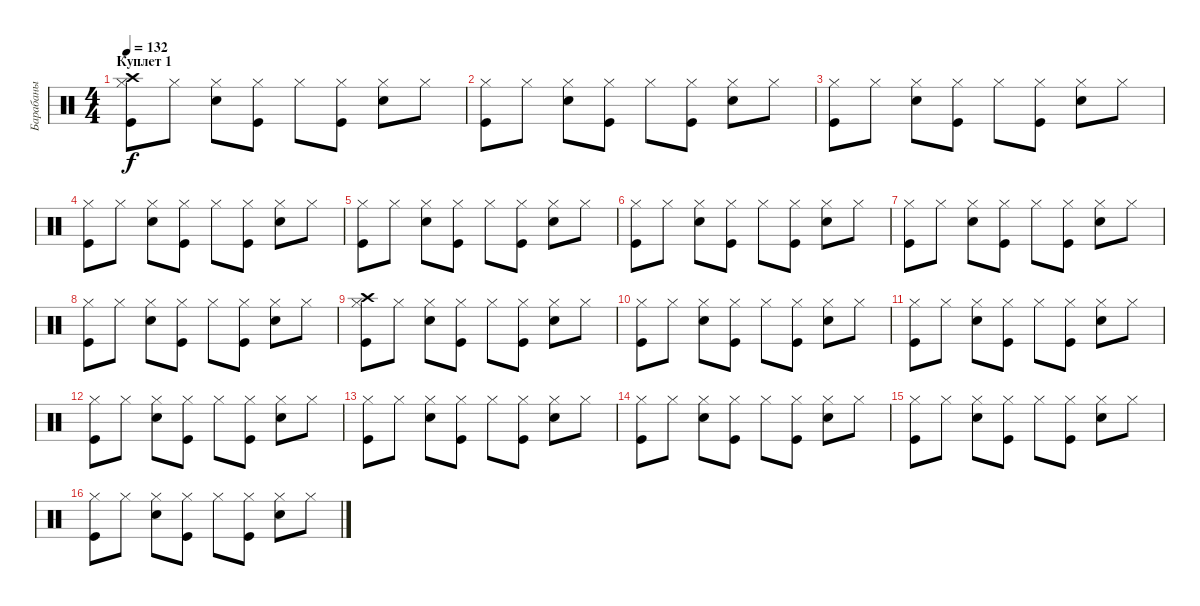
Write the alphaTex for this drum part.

\track ("Барабаны" "Барабаны") {instrument percussion}
\staff {score}
\articulation defaults
\ts (4 4)
\section ("" "Куплет 1")
\tempo 132
\clef neutral
\ks c
("Kick (hit)" "Hi-Hat (closed)" "Crash high (hit)").8{dy f} "Hi-Hat (closed)".8 ("Snare (hit) 2" "Hi-Hat (closed)").8 ("Kick (hit)" "Hi-Hat (closed)").8 "Hi-Hat (closed)".8 ("Kick (hit)" "Hi-Hat (closed)").8 ("Snare (hit) 2" "Hi-Hat (closed)").8 "Hi-Hat (closed)".8 |
("Kick (hit)" "Hi-Hat (closed)").8 "Hi-Hat (closed)".8 ("Snare (hit) 2" "Hi-Hat (closed)").8 ("Kick (hit)" "Hi-Hat (closed)").8 "Hi-Hat (closed)".8 ("Kick (hit)" "Hi-Hat (closed)").8 ("Snare (hit) 2" "Hi-Hat (closed)").8 "Hi-Hat (closed)".8 |
("Kick (hit)" "Hi-Hat (closed)").8 "Hi-Hat (closed)".8 ("Snare (hit) 2" "Hi-Hat (closed)").8 ("Kick (hit)" "Hi-Hat (closed)").8 "Hi-Hat (closed)".8 ("Kick (hit)" "Hi-Hat (closed)").8 ("Snare (hit) 2" "Hi-Hat (closed)").8 "Hi-Hat (closed)".8 |
("Kick (hit)" "Hi-Hat (closed)").8 "Hi-Hat (closed)".8 ("Snare (hit) 2" "Hi-Hat (closed)").8 ("Kick (hit)" "Hi-Hat (closed)").8 "Hi-Hat (closed)".8 ("Kick (hit)" "Hi-Hat (closed)").8 ("Snare (hit) 2" "Hi-Hat (closed)").8 "Hi-Hat (closed)".8 |
("Kick (hit)" "Hi-Hat (closed)").8 "Hi-Hat (closed)".8 ("Snare (hit) 2" "Hi-Hat (closed)").8 ("Kick (hit)" "Hi-Hat (closed)").8 "Hi-Hat (closed)".8 ("Kick (hit)" "Hi-Hat (closed)").8 ("Snare (hit) 2" "Hi-Hat (closed)").8 "Hi-Hat (closed)".8 |
("Kick (hit)" "Hi-Hat (closed)").8 "Hi-Hat (closed)".8 ("Snare (hit) 2" "Hi-Hat (closed)").8 ("Kick (hit)" "Hi-Hat (closed)").8 "Hi-Hat (closed)".8 ("Kick (hit)" "Hi-Hat (closed)").8 ("Snare (hit) 2" "Hi-Hat (closed)").8 "Hi-Hat (closed)".8 |
("Kick (hit)" "Hi-Hat (closed)").8 "Hi-Hat (closed)".8 ("Snare (hit) 2" "Hi-Hat (closed)").8 ("Kick (hit)" "Hi-Hat (closed)").8 "Hi-Hat (closed)".8 ("Kick (hit)" "Hi-Hat (closed)").8 ("Snare (hit) 2" "Hi-Hat (closed)").8 "Hi-Hat (closed)".8 |
("Kick (hit)" "Hi-Hat (closed)").8 "Hi-Hat (closed)".8 ("Snare (hit) 2" "Hi-Hat (closed)").8 ("Kick (hit)" "Hi-Hat (closed)").8 "Hi-Hat (closed)".8 ("Kick (hit)" "Hi-Hat (closed)").8 ("Snare (hit) 2" "Hi-Hat (closed)").8 "Hi-Hat (closed)".8 |
("Kick (hit)" "Hi-Hat (closed)" "Crash high (hit)").8 "Hi-Hat (closed)".8 ("Snare (hit) 2" "Hi-Hat (closed)").8 ("Kick (hit)" "Hi-Hat (closed)").8 "Hi-Hat (closed)".8 ("Kick (hit)" "Hi-Hat (closed)").8 ("Snare (hit) 2" "Hi-Hat (closed)").8 "Hi-Hat (closed)".8 |
("Kick (hit)" "Hi-Hat (closed)").8 "Hi-Hat (closed)".8 ("Snare (hit) 2" "Hi-Hat (closed)").8 ("Kick (hit)" "Hi-Hat (closed)").8 "Hi-Hat (closed)".8 ("Kick (hit)" "Hi-Hat (closed)").8 ("Snare (hit) 2" "Hi-Hat (closed)").8 "Hi-Hat (closed)".8 |
("Kick (hit)" "Hi-Hat (closed)").8 "Hi-Hat (closed)".8 ("Snare (hit) 2" "Hi-Hat (closed)").8 ("Kick (hit)" "Hi-Hat (closed)").8 "Hi-Hat (closed)".8 ("Kick (hit)" "Hi-Hat (closed)").8 ("Snare (hit) 2" "Hi-Hat (closed)").8 "Hi-Hat (closed)".8 |
("Kick (hit)" "Hi-Hat (closed)").8 "Hi-Hat (closed)".8 ("Snare (hit) 2" "Hi-Hat (closed)").8 ("Kick (hit)" "Hi-Hat (closed)").8 "Hi-Hat (closed)".8 ("Kick (hit)" "Hi-Hat (closed)").8 ("Snare (hit) 2" "Hi-Hat (closed)").8 "Hi-Hat (closed)".8 |
("Kick (hit)" "Hi-Hat (closed)").8 "Hi-Hat (closed)".8 ("Snare (hit) 2" "Hi-Hat (closed)").8 ("Kick (hit)" "Hi-Hat (closed)").8 "Hi-Hat (closed)".8 ("Kick (hit)" "Hi-Hat (closed)").8 ("Snare (hit) 2" "Hi-Hat (closed)").8 "Hi-Hat (closed)".8 |
("Kick (hit)" "Hi-Hat (closed)").8 "Hi-Hat (closed)".8 ("Snare (hit) 2" "Hi-Hat (closed)").8 ("Kick (hit)" "Hi-Hat (closed)").8 "Hi-Hat (closed)".8 ("Kick (hit)" "Hi-Hat (closed)").8 ("Snare (hit) 2" "Hi-Hat (closed)").8 "Hi-Hat (closed)".8 |
("Kick (hit)" "Hi-Hat (closed)").8 "Hi-Hat (closed)".8 ("Snare (hit) 2" "Hi-Hat (closed)").8 ("Kick (hit)" "Hi-Hat (closed)").8 "Hi-Hat (closed)".8 ("Kick (hit)" "Hi-Hat (closed)").8 ("Snare (hit) 2" "Hi-Hat (closed)").8 "Hi-Hat (closed)".8 |
("Kick (hit)" "Hi-Hat (closed)").8 "Hi-Hat (closed)".8 ("Snare (hit) 2" "Hi-Hat (closed)").8 ("Kick (hit)" "Hi-Hat (closed)").8 "Hi-Hat (closed)".8 ("Kick (hit)" "Hi-Hat (closed)").8 ("Snare (hit) 2" "Hi-Hat (closed)").8 "Hi-Hat (closed)".8
